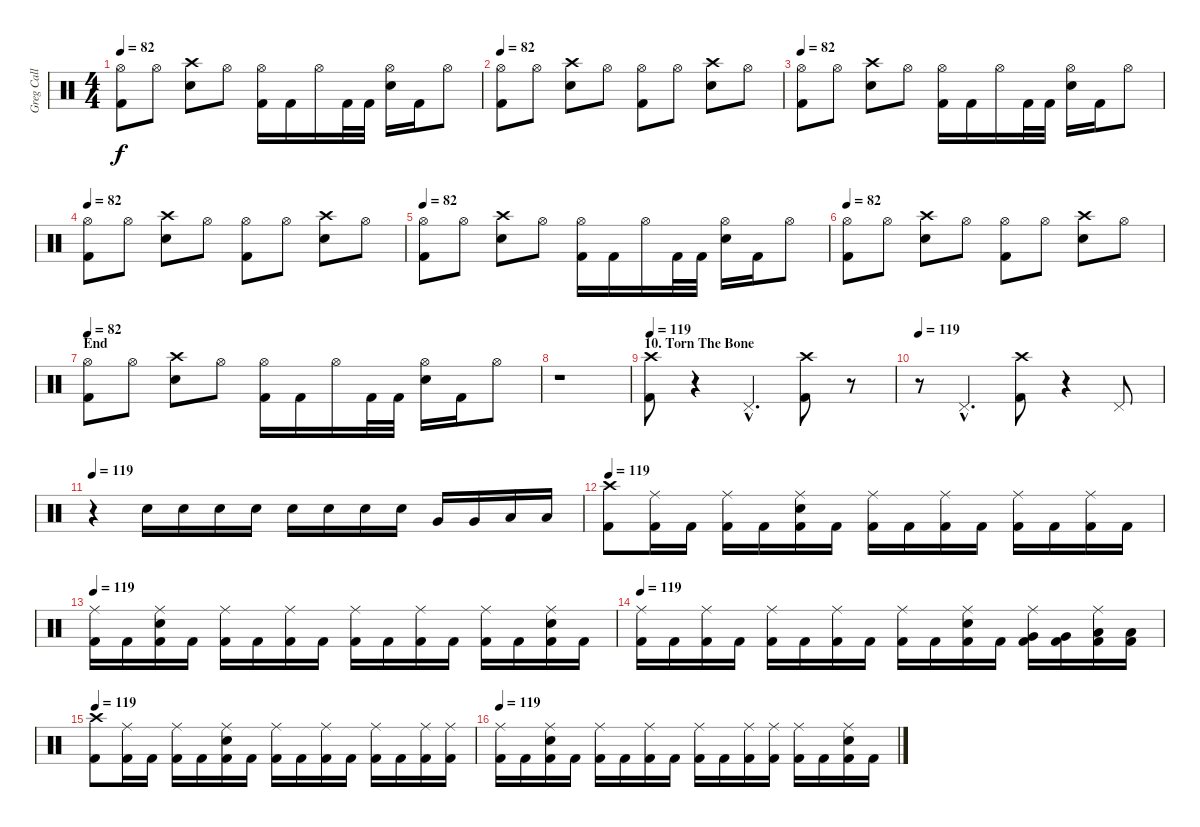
\track ("Greg Call (Drums)" "Greg Call ") {instrument percussion}
\staff {score}
\articulation defaults
\ts (4 4)
\tempo 82
\clef neutral
\ks c
("Hi-Hat (open)" "Kick (hit) 2").8{dy f} "Hi-Hat (open)".8 ("Crash high (hit)" "Snare (hit) 2").8 "Hi-Hat (open)".8 ("Hi-Hat (open)" "Kick (hit) 2").16 "Kick (hit) 2".16 "Hi-Hat (open)".16 "Kick (hit) 2".32 "Kick (hit) 2".32 ("Hi-Hat (open)" "Snare (hit) 2").16 "Kick (hit) 2".16 "Hi-Hat (open)".8 |
\tempo 82
("Hi-Hat (open)" "Kick (hit) 2").8 "Hi-Hat (open)".8 ("Crash high (hit)" "Snare (hit) 2").8 "Hi-Hat (open)".8 ("Hi-Hat (open)" "Kick (hit) 2").8 "Hi-Hat (open)".8 ("Crash high (hit)" "Snare (hit) 2").8 "Hi-Hat (open)".8 |
\tempo 82
("Hi-Hat (open)" "Kick (hit) 2").8 "Hi-Hat (open)".8 ("Crash high (hit)" "Snare (hit) 2").8 "Hi-Hat (open)".8 ("Hi-Hat (open)" "Kick (hit) 2").16 "Kick (hit) 2".16 "Hi-Hat (open)".16 "Kick (hit) 2".32 "Kick (hit) 2".32 ("Hi-Hat (open)" "Snare (hit) 2").16 "Kick (hit) 2".16 "Hi-Hat (open)".8 |
\tempo 82
("Hi-Hat (open)" "Kick (hit) 2").8 "Hi-Hat (open)".8 ("Crash high (hit)" "Snare (hit) 2").8 "Hi-Hat (open)".8 ("Hi-Hat (open)" "Kick (hit) 2").8 "Hi-Hat (open)".8 ("Crash high (hit)" "Snare (hit) 2").8 "Hi-Hat (open)".8 |
\tempo 82
("Hi-Hat (open)" "Kick (hit) 2").8 "Hi-Hat (open)".8 ("Crash high (hit)" "Snare (hit) 2").8 "Hi-Hat (open)".8 ("Hi-Hat (open)" "Kick (hit) 2").16 "Kick (hit) 2".16 "Hi-Hat (open)".16 "Kick (hit) 2".32 "Kick (hit) 2".32 ("Hi-Hat (open)" "Snare (hit) 2").16 "Kick (hit) 2".16 "Hi-Hat (open)".8 |
\tempo 82
("Hi-Hat (open)" "Kick (hit) 2").8 "Hi-Hat (open)".8 ("Crash high (hit)" "Snare (hit) 2").8 "Hi-Hat (open)".8 ("Hi-Hat (open)" "Kick (hit) 2").8 "Hi-Hat (open)".8 ("Crash high (hit)" "Snare (hit) 2").8 "Hi-Hat (open)".8 |
\section ("" "End")
\tempo 82
("Hi-Hat (open)" "Kick (hit) 2").8 "Hi-Hat (open)".8 ("Crash high (hit)" "Snare (hit) 2").8 "Hi-Hat (open)".8 ("Hi-Hat (open)" "Kick (hit) 2").16 "Kick (hit) 2".16 "Hi-Hat (open)".16 "Kick (hit) 2".32 "Kick (hit) 2".32 ("Hi-Hat (open)" "Snare (hit) 2").16 "Kick (hit) 2".16 "Hi-Hat (open)".8 |
r.1 |
\section ("" "10. Torn The Bone")
\tempo 119
("Crash high (hit)" "Kick (hit) 2").8 r.4{volume 0} "Pedal Hi-Hat (hit)"{hac}.4{d volume 16} ("Crash high (hit)" "Kick (hit) 2").8 r.8{volume 0} |
\tempo 119
r.8 "Pedal Hi-Hat (hit)"{hac}.4{d volume 16} ("Crash high (hit)" "Kick (hit) 2").8 r.4{volume 0} "Pedal Hi-Hat (hit)".8{volume 16} |
\tempo 119
r.4 "Snare (hit) 2".16 "Snare (hit) 2".16 "Snare (hit) 2".16 "Snare (hit) 2".16 "Snare (hit) 2".16 "Snare (hit) 2".16 "Snare (hit) 2".16 "Snare (hit) 2".16 "Very Low Tom (hit)".16 "Very Low Tom (hit)".16 "Low Floor Tom (hit)".16 "Low Floor Tom (hit)".16 |
\tempo 119
("Crash high (hit)" "Kick (hit) 2").8 ("Ride (middle)" "Kick (hit) 2").16 "Kick (hit) 2".16 ("Ride (middle)" "Kick (hit) 2").16 "Kick (hit) 2".16 ("Snare (hit) 2" "Ride (middle)" "Kick (hit) 2").16 "Kick (hit) 2".16 ("Ride (middle)" "Kick (hit) 2").16 "Kick (hit) 2".16 ("Ride (middle)" "Kick (hit) 2").16 "Kick (hit) 2".16 ("Ride (middle)" "Kick (hit) 2").16 "Kick (hit) 2".16 ("Ride (middle)" "Kick (hit) 2").16 "Kick (hit) 2".16 |
\tempo 119
("Ride (middle)" "Kick (hit) 2").16 "Kick (hit) 2".16 ("Snare (hit) 2" "Ride (middle)" "Kick (hit) 2").16 "Kick (hit) 2".16 ("Ride (middle)" "Kick (hit) 2").16 "Kick (hit) 2".16 ("Ride (middle)" "Kick (hit) 2").16 "Kick (hit) 2".16 ("Ride (middle)" "Kick (hit) 2").16 "Kick (hit) 2".16 ("Ride (middle)" "Kick (hit) 2").16 "Kick (hit) 2".16 ("Ride (middle)" "Kick (hit) 2").16 "Kick (hit) 2".16 ("Snare (hit) 2" "Ride (middle)" "Kick (hit) 2").16 "Kick (hit) 2".16 |
\tempo 119
("Ride (middle)" "Kick (hit) 2").16 "Kick (hit) 2".16 ("Ride (middle)" "Kick (hit) 2").16 "Kick (hit) 2".16 ("Ride (middle)" "Kick (hit) 2").16 "Kick (hit) 2".16 ("Ride (middle)" "Kick (hit) 2").16 "Kick (hit) 2".16 ("Ride (middle)" "Kick (hit) 2").16 "Kick (hit) 2".16 ("Ride (middle)" "Snare (hit) 2" "Kick (hit) 2").16 "Kick (hit) 2".16 ("Very Low Tom (hit)" "Ride (middle)" "Kick (hit) 2").16 ("Very Low Tom (hit)" "Kick (hit) 2").16 ("Low Floor Tom (hit)" "Ride (middle)" "Kick (hit) 2").16 ("Low Floor Tom (hit)" "Kick (hit) 2").16 |
\tempo 119
("Crash high (hit)" "Kick (hit) 2").8 ("Ride (middle)" "Kick (hit) 2").16 "Kick (hit) 2".16 ("Ride (middle)" "Kick (hit) 2").16 "Kick (hit) 2".16 ("Snare (hit) 2" "Ride (middle)" "Kick (hit) 2").16 "Kick (hit) 2".16 ("Ride (middle)" "Kick (hit) 2").16 "Kick (hit) 2".16 ("Ride (middle)" "Kick (hit) 2").16 "Kick (hit) 2".16 ("Ride (middle)" "Kick (hit) 2").16 "Kick (hit) 2".16 ("Ride (middle)" "Kick (hit) 2").16 ("Ride (middle)" "Kick (hit) 2").16 |
\tempo 119
("Ride (middle)" "Kick (hit) 2").16 "Kick (hit) 2".16 ("Snare (hit) 2" "Ride (middle)" "Kick (hit) 2").16 "Kick (hit) 2".16 ("Ride (middle)" "Kick (hit) 2").16 "Kick (hit) 2".16 ("Ride (middle)" "Kick (hit) 2").16 "Kick (hit) 2".16 ("Ride (middle)" "Kick (hit) 2").16 "Kick (hit) 2".16 ("Ride (middle)" "Kick (hit) 2").16 ("Ride (middle)" "Kick (hit) 2").16 ("Ride (middle)" "Kick (hit) 2").16 "Kick (hit) 2".16 ("Snare (hit) 2" "Ride (middle)" "Kick (hit) 2").16 "Kick (hit) 2".16
